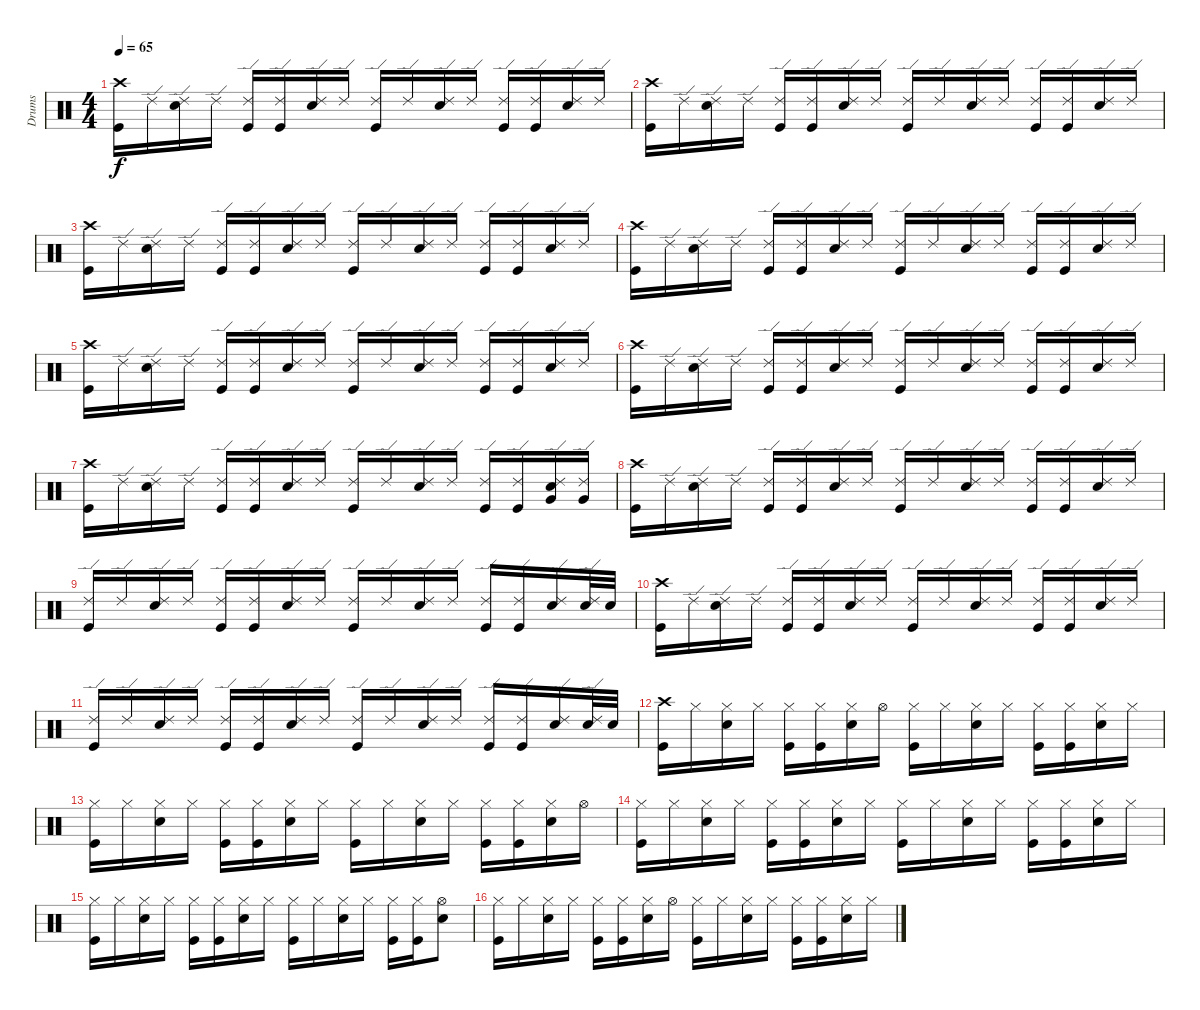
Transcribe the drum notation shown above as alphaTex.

\track ("Drums" "Drums") {instrument percussion}
\staff {score}
\articulation defaults
\ts (4 4)
\tempo 65
\clef neutral
\ks c
("Crash high (hit)" "Kick (hit)").16{dy f} "Ride (edge) 2".16 ("Ride (edge) 2" "Snare (hit) 2").16 "Ride (edge) 2".16 ("Ride (edge) 2" "Kick (hit)").16 ("Ride (edge) 2" "Kick (hit)").16 ("Ride (edge) 2" "Snare (hit) 2").16 "Ride (edge) 2".16 ("Ride (edge) 2" "Kick (hit)").16 "Ride (edge) 2".16 ("Ride (edge) 2" "Snare (hit) 2").16 "Ride (edge) 2".16 ("Ride (edge) 2" "Kick (hit)").16 ("Ride (edge) 2" "Kick (hit)").16 ("Ride (edge) 2" "Snare (hit) 2").16 "Ride (edge) 2".16 |
("Crash high (hit)" "Kick (hit)").16 "Ride (edge) 2".16 ("Ride (edge) 2" "Snare (hit) 2").16 "Ride (edge) 2".16 ("Ride (edge) 2" "Kick (hit)").16 ("Ride (edge) 2" "Kick (hit)").16 ("Ride (edge) 2" "Snare (hit) 2").16 "Ride (edge) 2".16 ("Ride (edge) 2" "Kick (hit)").16 "Ride (edge) 2".16 ("Ride (edge) 2" "Snare (hit) 2").16 "Ride (edge) 2".16 ("Ride (edge) 2" "Kick (hit)").16 ("Ride (edge) 2" "Kick (hit)").16 ("Ride (edge) 2" "Snare (hit) 2").16 "Ride (edge) 2".16 |
("Crash high (hit)" "Kick (hit)").16 "Ride (edge) 2".16 ("Ride (edge) 2" "Snare (hit) 2").16 "Ride (edge) 2".16 ("Ride (edge) 2" "Kick (hit)").16 ("Ride (edge) 2" "Kick (hit)").16 ("Ride (edge) 2" "Snare (hit) 2").16 "Ride (edge) 2".16 ("Ride (edge) 2" "Kick (hit)").16 "Ride (edge) 2".16 ("Ride (edge) 2" "Snare (hit) 2").16 "Ride (edge) 2".16 ("Ride (edge) 2" "Kick (hit)").16 ("Ride (edge) 2" "Kick (hit)").16 ("Ride (edge) 2" "Snare (hit) 2").16 "Ride (edge) 2".16 |
("Crash high (hit)" "Kick (hit)").16 "Ride (edge) 2".16 ("Ride (edge) 2" "Snare (hit) 2").16 "Ride (edge) 2".16 ("Ride (edge) 2" "Kick (hit)").16 ("Ride (edge) 2" "Kick (hit)").16 ("Ride (edge) 2" "Snare (hit) 2").16 "Ride (edge) 2".16 ("Ride (edge) 2" "Kick (hit)").16 "Ride (edge) 2".16 ("Ride (edge) 2" "Snare (hit) 2").16 "Ride (edge) 2".16 ("Ride (edge) 2" "Kick (hit)").16 ("Ride (edge) 2" "Kick (hit)").16 ("Ride (edge) 2" "Snare (hit) 2").16 "Ride (edge) 2".16 |
("Crash high (hit)" "Kick (hit)").16 "Ride (edge) 2".16 ("Ride (edge) 2" "Snare (hit) 2").16 "Ride (edge) 2".16 ("Ride (edge) 2" "Kick (hit)").16 ("Ride (edge) 2" "Kick (hit)").16 ("Ride (edge) 2" "Snare (hit) 2").16 "Ride (edge) 2".16 ("Ride (edge) 2" "Kick (hit)").16 "Ride (edge) 2".16 ("Ride (edge) 2" "Snare (hit) 2").16 "Ride (edge) 2".16 ("Ride (edge) 2" "Kick (hit)").16 ("Ride (edge) 2" "Kick (hit)").16 ("Ride (edge) 2" "Snare (hit) 2").16 "Ride (edge) 2".16 |
("Crash high (hit)" "Kick (hit)").16 "Ride (edge) 2".16 ("Ride (edge) 2" "Snare (hit) 2").16 "Ride (edge) 2".16 ("Ride (edge) 2" "Kick (hit)").16 ("Ride (edge) 2" "Kick (hit)").16 ("Ride (edge) 2" "Snare (hit) 2").16 "Ride (edge) 2".16 ("Ride (edge) 2" "Kick (hit)").16 "Ride (edge) 2".16 ("Ride (edge) 2" "Snare (hit) 2").16 "Ride (edge) 2".16 ("Ride (edge) 2" "Kick (hit)").16 ("Ride (edge) 2" "Kick (hit)").16 ("Ride (edge) 2" "Snare (hit) 2").16 "Ride (edge) 2".16 |
("Crash high (hit)" "Kick (hit)").16 "Ride (edge) 2".16 ("Ride (edge) 2" "Snare (hit) 2").16 "Ride (edge) 2".16 ("Ride (edge) 2" "Kick (hit)").16 ("Ride (edge) 2" "Kick (hit)").16 ("Ride (edge) 2" "Snare (hit) 2").16 "Ride (edge) 2".16 ("Ride (edge) 2" "Kick (hit)").16 "Ride (edge) 2".16 ("Ride (edge) 2" "Snare (hit) 2").16 "Ride (edge) 2".16 ("Ride (edge) 2" "Kick (hit)").16 ("Ride (edge) 2" "Kick (hit)").16 ("Ride (edge) 2" "Snare (hit) 2" "Very Low Tom (hit)").16 ("Ride (edge) 2" "Very Low Tom (hit)").16 |
("Crash high (hit)" "Kick (hit)").16 "Ride (edge) 2".16 ("Ride (edge) 2" "Snare (hit) 2").16 "Ride (edge) 2".16 ("Ride (edge) 2" "Kick (hit)").16 ("Ride (edge) 2" "Kick (hit)").16 ("Ride (edge) 2" "Snare (hit) 2").16 "Ride (edge) 2".16 ("Ride (edge) 2" "Kick (hit)").16 "Ride (edge) 2".16 ("Ride (edge) 2" "Snare (hit) 2").16 "Ride (edge) 2".16 ("Ride (edge) 2" "Kick (hit)").16 ("Ride (edge) 2" "Kick (hit)").16 ("Ride (edge) 2" "Snare (hit) 2").16 "Ride (edge) 2".16 |
("Ride (edge) 2" "Kick (hit)").16 "Ride (edge) 2".16 ("Ride (edge) 2" "Snare (hit) 2").16 "Ride (edge) 2".16 ("Ride (edge) 2" "Kick (hit)").16 ("Ride (edge) 2" "Kick (hit)").16 ("Ride (edge) 2" "Snare (hit) 2").16 "Ride (edge) 2".16 ("Ride (edge) 2" "Kick (hit)").16 "Ride (edge) 2".16 ("Ride (edge) 2" "Snare (hit) 2").16 "Ride (edge) 2".16 ("Ride (edge) 2" "Kick (hit)").16 ("Ride (edge) 2" "Kick (hit)").16 ("Ride (edge) 2" "Snare (hit) 2").16 ("Ride (edge) 2" "Snare (hit) 2").32 "Snare (hit) 2".32 |
("Crash high (hit)" "Kick (hit)").16 "Ride (edge) 2".16 ("Ride (edge) 2" "Snare (hit) 2").16 "Ride (edge) 2".16 ("Ride (edge) 2" "Kick (hit)").16 ("Ride (edge) 2" "Kick (hit)").16 ("Ride (edge) 2" "Snare (hit) 2").16 "Ride (edge) 2".16 ("Ride (edge) 2" "Kick (hit)").16 "Ride (edge) 2".16 ("Ride (edge) 2" "Snare (hit) 2").16 "Ride (edge) 2".16 ("Ride (edge) 2" "Kick (hit)").16 ("Ride (edge) 2" "Kick (hit)").16 ("Ride (edge) 2" "Snare (hit) 2").16 "Ride (edge) 2".16 |
("Ride (edge) 2" "Kick (hit)").16 "Ride (edge) 2".16 ("Ride (edge) 2" "Snare (hit) 2").16 "Ride (edge) 2".16 ("Ride (edge) 2" "Kick (hit)").16 ("Ride (edge) 2" "Kick (hit)").16 ("Ride (edge) 2" "Snare (hit) 2").16 "Ride (edge) 2".16 ("Ride (edge) 2" "Kick (hit)").16 "Ride (edge) 2".16 ("Ride (edge) 2" "Snare (hit) 2").16 "Ride (edge) 2".16 ("Ride (edge) 2" "Kick (hit)").16 ("Ride (edge) 2" "Kick (hit)").16 ("Ride (edge) 2" "Snare (hit) 2").16 ("Ride (edge) 2" "Snare (hit) 2").32 "Snare (hit) 2".32 |
("Crash high (hit)" "Kick (hit)").16 "Hi-Hat (closed)".16 ("Hi-Hat (closed)" "Snare (hit) 2").16 "Hi-Hat (closed)".16 ("Hi-Hat (closed)" "Kick (hit)").16 ("Hi-Hat (closed)" "Kick (hit)").16 ("Hi-Hat (closed)" "Snare (hit) 2").16 "Hi-Hat (open)".16 ("Hi-Hat (closed)" "Kick (hit)").16 "Hi-Hat (closed)".16 ("Hi-Hat (closed)" "Snare (hit) 2").16 "Hi-Hat (closed)".16 ("Hi-Hat (closed)" "Kick (hit)").16 ("Hi-Hat (closed)" "Kick (hit)").16 ("Hi-Hat (closed)" "Snare (hit) 2").16 "Hi-Hat (closed)".16 |
("Hi-Hat (closed)" "Kick (hit)").16 "Hi-Hat (closed)".16 ("Hi-Hat (closed)" "Snare (hit) 2").16 "Hi-Hat (closed)".16 ("Hi-Hat (closed)" "Kick (hit)").16 ("Hi-Hat (closed)" "Kick (hit)").16 ("Hi-Hat (closed)" "Snare (hit) 2").16 "Hi-Hat (closed)".16 ("Hi-Hat (closed)" "Kick (hit)").16 "Hi-Hat (closed)".16 ("Hi-Hat (closed)" "Snare (hit) 2").16 "Hi-Hat (closed)".16 ("Hi-Hat (closed)" "Kick (hit)").16 ("Hi-Hat (closed)" "Kick (hit)").16 ("Hi-Hat (closed)" "Snare (hit) 2").16 "Hi-Hat (open)".16 |
("Hi-Hat (closed)" "Kick (hit)").16 "Hi-Hat (closed)".16 ("Hi-Hat (closed)" "Snare (hit) 2").16 "Hi-Hat (closed)".16 ("Hi-Hat (closed)" "Kick (hit)").16 ("Hi-Hat (closed)" "Kick (hit)").16 ("Hi-Hat (closed)" "Snare (hit) 2").16 "Hi-Hat (closed)".16 ("Hi-Hat (closed)" "Kick (hit)").16 "Hi-Hat (closed)".16 ("Hi-Hat (closed)" "Snare (hit) 2").16 "Hi-Hat (closed)".16 ("Hi-Hat (closed)" "Kick (hit)").16 ("Hi-Hat (closed)" "Kick (hit)").16 ("Hi-Hat (closed)" "Snare (hit) 2").16 "Hi-Hat (closed)".16 |
("Hi-Hat (closed)" "Kick (hit)").16 "Hi-Hat (closed)".16 ("Hi-Hat (closed)" "Snare (hit) 2").16 "Hi-Hat (closed)".16 ("Hi-Hat (closed)" "Kick (hit)").16 ("Hi-Hat (closed)" "Kick (hit)").16 ("Hi-Hat (closed)" "Snare (hit) 2").16 "Hi-Hat (closed)".16 ("Hi-Hat (closed)" "Kick (hit)").16 "Hi-Hat (closed)".16 ("Hi-Hat (closed)" "Snare (hit) 2").16 "Hi-Hat (closed)".16 ("Hi-Hat (closed)" "Kick (hit)").16 ("Hi-Hat (closed)" "Kick (hit)").16 ("Hi-Hat (open)" "Snare (hit) 2").8 |
("Hi-Hat (closed)" "Kick (hit)").16 "Hi-Hat (closed)".16 ("Hi-Hat (closed)" "Snare (hit) 2").16 "Hi-Hat (closed)".16 ("Hi-Hat (closed)" "Kick (hit)").16 ("Hi-Hat (closed)" "Kick (hit)").16 ("Hi-Hat (closed)" "Snare (hit) 2").16 "Hi-Hat (open)".16 ("Hi-Hat (closed)" "Kick (hit)").16 "Hi-Hat (closed)".16 ("Hi-Hat (closed)" "Snare (hit) 2").16 "Hi-Hat (closed)".16 ("Hi-Hat (closed)" "Kick (hit)").16 ("Hi-Hat (closed)" "Kick (hit)").16 ("Hi-Hat (closed)" "Snare (hit) 2").16 "Hi-Hat (closed)".16
